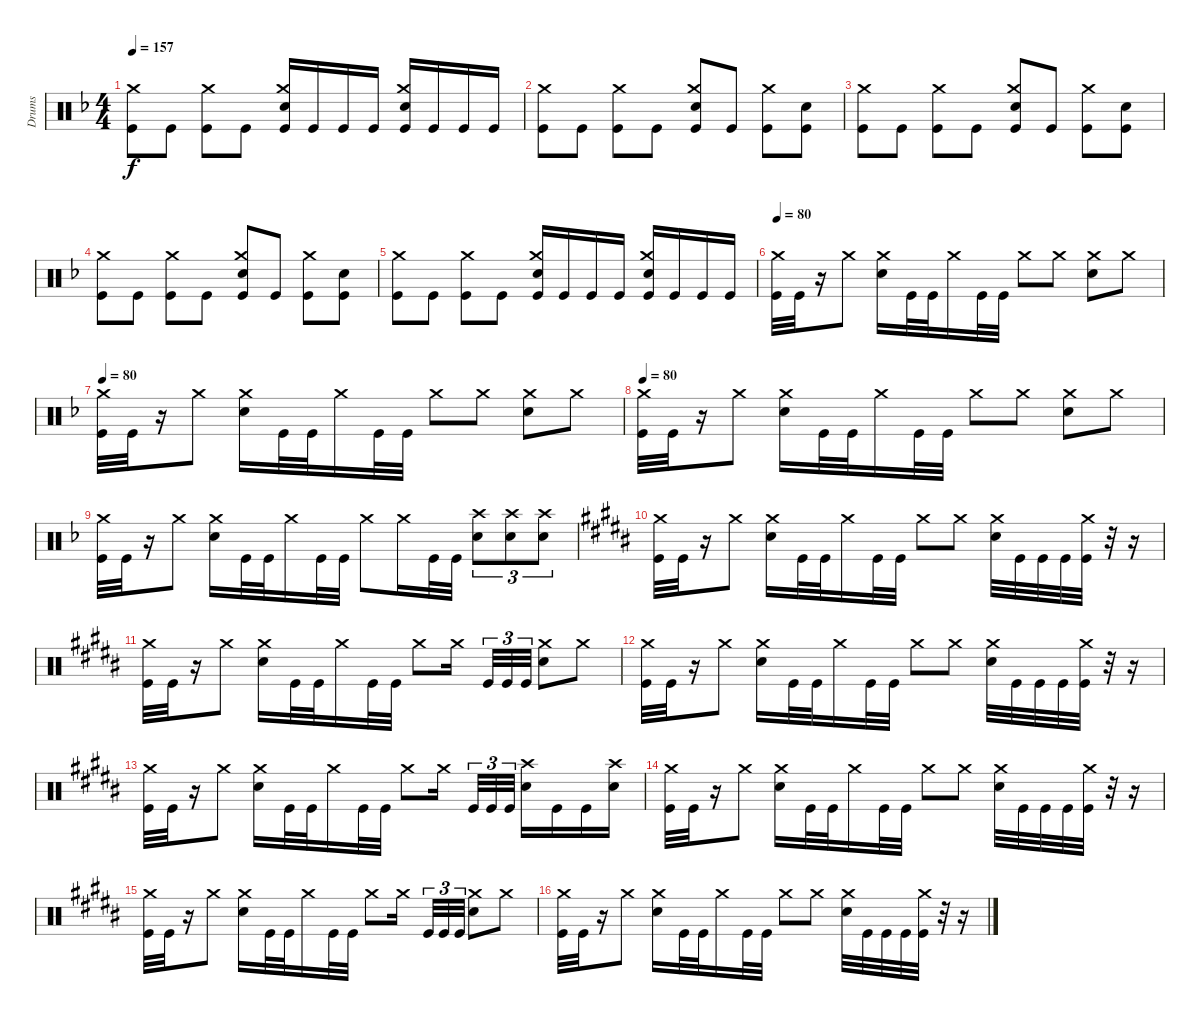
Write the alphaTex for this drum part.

\track ("Drums" "Drums") {instrument percussion}
\staff {score}
\articulation defaults
\ts (4 4)
\tempo 157
\clef neutral
\ks f
("Kick (hit)" "Crash medium (hit)").8{dy f} "Kick (hit)".8 ("Kick (hit)" "Crash medium (hit)").8 "Kick (hit)".8 ("Kick (hit)" "Crash medium (hit)" "Snare (hit) 2").16 "Kick (hit)".16 "Kick (hit)".16 "Kick (hit)".16 ("Kick (hit)" "Crash medium (hit)" "Snare (hit) 2").16 "Kick (hit)".16 "Kick (hit)".16 "Kick (hit)".16 |
("Kick (hit)" "Crash medium (hit)").8 "Kick (hit)".8 ("Kick (hit)" "Crash medium (hit)").8 "Kick (hit)".8 ("Kick (hit)" "Crash medium (hit)" "Snare (hit) 2").8 "Kick (hit)".8 ("Kick (hit)" "Crash medium (hit)").8 ("Kick (hit)" "Snare (hit) 2").8 |
("Kick (hit)" "Crash medium (hit)").8 "Kick (hit)".8 ("Kick (hit)" "Crash medium (hit)").8 "Kick (hit)".8 ("Kick (hit)" "Crash medium (hit)" "Snare (hit) 2").8 "Kick (hit)".8 ("Kick (hit)" "Crash medium (hit)").8 ("Kick (hit)" "Snare (hit) 2").8 |
("Kick (hit)" "Crash medium (hit)").8 "Kick (hit)".8 ("Kick (hit)" "Crash medium (hit)").8 "Kick (hit)".8 ("Kick (hit)" "Crash medium (hit)" "Snare (hit) 2").8 "Kick (hit)".8 ("Kick (hit)" "Crash medium (hit)").8 ("Kick (hit)" "Snare (hit) 2").8 |
("Kick (hit)" "Crash medium (hit)").8 "Kick (hit)".8 ("Kick (hit)" "Crash medium (hit)").8 "Kick (hit)".8 ("Kick (hit)" "Crash medium (hit)" "Snare (hit) 2").16 "Kick (hit)".16 "Kick (hit)".16 "Kick (hit)".16 ("Kick (hit)" "Crash medium (hit)" "Snare (hit) 2").16 "Kick (hit)".16 "Kick (hit)".16 "Kick (hit)".16 |
\tempo 80
("Crash medium (hit)" "Kick (hit)").32 "Kick (hit)".32 r.16 "Crash medium (hit)".8 ("Crash medium (hit)" "Snare (hit) 2").16 "Kick (hit)".32 "Kick (hit)".32 "Crash medium (hit)".16 "Kick (hit)".32 "Kick (hit)".32 "Crash medium (hit)".8 "Crash medium (hit)".8 ("Crash medium (hit)" "Snare (hit) 2").8 "Crash medium (hit)".8 |
\tempo 80
("Crash medium (hit)" "Kick (hit)").32 "Kick (hit)".32 r.16 "Crash medium (hit)".8 ("Crash medium (hit)" "Snare (hit) 2").16 "Kick (hit)".32 "Kick (hit)".32 "Crash medium (hit)".16 "Kick (hit)".32 "Kick (hit)".32 "Crash medium (hit)".8 "Crash medium (hit)".8 ("Crash medium (hit)" "Snare (hit) 2").8 "Crash medium (hit)".8 |
\tempo 80
("Crash medium (hit)" "Kick (hit)").32 "Kick (hit)".32 r.16 "Crash medium (hit)".8 ("Crash medium (hit)" "Snare (hit) 2").16 "Kick (hit)".32 "Kick (hit)".32 "Crash medium (hit)".16 "Kick (hit)".32 "Kick (hit)".32 "Crash medium (hit)".8 "Crash medium (hit)".8 ("Crash medium (hit)" "Snare (hit) 2").8 "Crash medium (hit)".8 |
("Crash medium (hit)" "Kick (hit)").32 "Kick (hit)".32 r.16 "Crash medium (hit)".8 ("Crash medium (hit)" "Snare (hit) 2").16 "Kick (hit)".32 "Kick (hit)".32 "Crash medium (hit)".16 "Kick (hit)".32 "Kick (hit)".32 "Crash medium (hit)".8 "Crash medium (hit)".16 "Kick (hit)".32 "Kick (hit)".32 ("Snare (hit) 2" "Crash high (hit)").8{tu (3 2)} ("Snare (hit) 2" "Crash high (hit)").8{tu (3 2)} ("Snare (hit) 2" "Crash high (hit)").8{tu (3 2)} |
\ks b
("Crash medium (hit)" "Kick (hit)").32 "Kick (hit)".32 r.16 "Crash medium (hit)".8 ("Crash medium (hit)" "Snare (hit) 2").16 "Kick (hit)".32 "Kick (hit)".32 "Crash medium (hit)".16 "Kick (hit)".32 "Kick (hit)".32 "Crash medium (hit)".8 "Crash medium (hit)".8 ("Snare (hit) 2" "Crash medium (hit)").32 "Kick (hit)".32 "Kick (hit)".32 "Kick (hit)".32 ("Kick (hit)" "Crash medium (hit)").32 r.32 r.16 |
\ks g#minor
("Crash medium (hit)" "Kick (hit)").32 "Kick (hit)".32 r.16 "Crash medium (hit)".8 ("Crash medium (hit)" "Snare (hit) 2").16 "Kick (hit)".32 "Kick (hit)".32 "Crash medium (hit)".16 "Kick (hit)".32 "Kick (hit)".32 "Crash medium (hit)".8 "Crash medium (hit)".16{beam splitsecondary} "Kick (hit)".32{tu (3 2)} "Kick (hit)".32{tu (3 2)} "Kick (hit)".32{tu (3 2)} ("Crash medium (hit)" "Snare (hit) 2").8 "Crash medium (hit)".8 |
("Crash medium (hit)" "Kick (hit)").32 "Kick (hit)".32 r.16 "Crash medium (hit)".8 ("Crash medium (hit)" "Snare (hit) 2").16 "Kick (hit)".32 "Kick (hit)".32 "Crash medium (hit)".16 "Kick (hit)".32 "Kick (hit)".32 "Crash medium (hit)".8 "Crash medium (hit)".8 ("Snare (hit) 2" "Crash medium (hit)").32 "Kick (hit)".32 "Kick (hit)".32 "Kick (hit)".32 ("Kick (hit)" "Crash medium (hit)").32 r.32 r.16 |
("Crash medium (hit)" "Kick (hit)").32 "Kick (hit)".32 r.16 "Crash medium (hit)".8 ("Crash medium (hit)" "Snare (hit) 2").16 "Kick (hit)".32 "Kick (hit)".32 "Crash medium (hit)".16 "Kick (hit)".32 "Kick (hit)".32 "Crash medium (hit)".8 "Crash medium (hit)".16{beam splitsecondary} "Kick (hit)".32{tu (3 2)} "Kick (hit)".32{tu (3 2)} "Kick (hit)".32{tu (3 2)} ("Crash high (hit)" "Snare (hit) 2").16 "Kick (hit)".16 "Kick (hit)".16 ("Snare (hit) 2" "Crash high (hit)").16 |
\ks b
("Crash medium (hit)" "Kick (hit)").32 "Kick (hit)".32 r.16 "Crash medium (hit)".8 ("Crash medium (hit)" "Snare (hit) 2").16 "Kick (hit)".32 "Kick (hit)".32 "Crash medium (hit)".16 "Kick (hit)".32 "Kick (hit)".32 "Crash medium (hit)".8 "Crash medium (hit)".8 ("Snare (hit) 2" "Crash medium (hit)").32 "Kick (hit)".32 "Kick (hit)".32 "Kick (hit)".32 ("Kick (hit)" "Crash medium (hit)").32 r.32 r.16 |
\ks g#minor
("Crash medium (hit)" "Kick (hit)").32 "Kick (hit)".32 r.16 "Crash medium (hit)".8 ("Crash medium (hit)" "Snare (hit) 2").16 "Kick (hit)".32 "Kick (hit)".32 "Crash medium (hit)".16 "Kick (hit)".32 "Kick (hit)".32 "Crash medium (hit)".8 "Crash medium (hit)".16{beam splitsecondary} "Kick (hit)".32{tu (3 2)} "Kick (hit)".32{tu (3 2)} "Kick (hit)".32{tu (3 2)} ("Crash medium (hit)" "Snare (hit) 2").8 "Crash medium (hit)".8 |
("Crash medium (hit)" "Kick (hit)").32 "Kick (hit)".32 r.16 "Crash medium (hit)".8 ("Crash medium (hit)" "Snare (hit) 2").16 "Kick (hit)".32 "Kick (hit)".32 "Crash medium (hit)".16 "Kick (hit)".32 "Kick (hit)".32 "Crash medium (hit)".8 "Crash medium (hit)".8 ("Snare (hit) 2" "Crash medium (hit)").32 "Kick (hit)".32 "Kick (hit)".32 "Kick (hit)".32 ("Kick (hit)" "Crash medium (hit)").32 r.32 r.16
